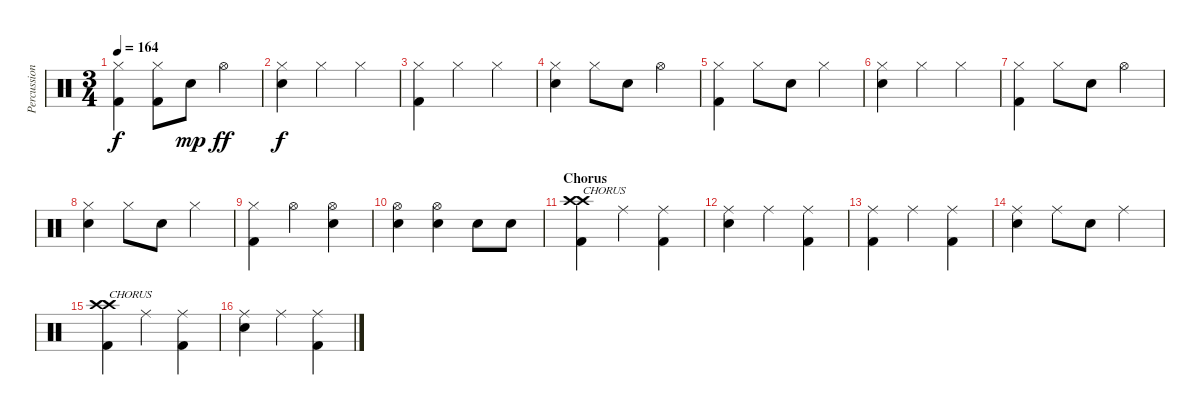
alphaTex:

\track ("Percussion" "Percussion") {instrument percussion}
\staff {score}
\articulation defaults
\ts (3 4)
\tempo 164
\clef neutral
\ks c
("Hi-Hat (closed)" "Kick (hit) 2").4{dy f} ("Hi-Hat (closed)" "Kick (hit) 2").8 "Snare (hit) 2".8{dy mp} "Hi-Hat (open)".4{dy ff} |
("Hi-Hat (closed)" "Snare (hit) 2").4{dy f} "Hi-Hat (closed)".4 "Hi-Hat (closed)".4 |
("Hi-Hat (closed)" "Kick (hit) 2").4 "Hi-Hat (closed)".4 "Hi-Hat (closed)".4 |
("Hi-Hat (closed)" "Snare (hit) 2").4 "Hi-Hat (closed)".8 "Snare (hit) 2".8 "Hi-Hat (open)".4 |
("Hi-Hat (closed)" "Kick (hit) 2").4 "Hi-Hat (closed)".8 "Snare (hit) 2".8 "Hi-Hat (closed)".4 |
("Hi-Hat (closed)" "Snare (hit) 2").4 "Hi-Hat (closed)".4 "Hi-Hat (closed)".4 |
("Hi-Hat (closed)" "Kick (hit) 2").4 "Hi-Hat (closed)".8 "Snare (hit) 2".8 "Hi-Hat (open)".4 |
("Hi-Hat (closed)" "Snare (hit) 2").4 "Hi-Hat (closed)".8 "Snare (hit) 2".8 "Hi-Hat (closed)".4 |
("Hi-Hat (closed)" "Kick (hit) 2").4 "Hi-Hat (open)".4 ("Hi-Hat (open)" "Snare (hit) 2").4 |
("Hi-Hat (open)" "Snare (hit) 2").4 ("Hi-Hat (open)" "Snare (hit) 2").4 "Snare (hit) 2".8 "Snare (hit) 2".8 |
\section ("" "Chorus")
("Crash high (hit)" "Crash high (hit)" "Kick (hit) 2").4{txt "CHORUS"} "Ride (middle)".4 ("Ride (middle)" "Kick (hit) 2").4 |
("Ride (middle)" "Snare (hit) 2").4 "Ride (middle)".4 ("Ride (middle)" "Kick (hit) 2").4 |
("Ride (middle)" "Kick (hit) 2").4 "Ride (middle)".4 ("Ride (middle)" "Kick (hit) 2").4 |
("Ride (middle)" "Snare (hit) 2").4 "Ride (middle)".8 "Snare (hit) 2".8 "Ride (middle)".4 |
("Crash high (hit)" "Crash high (hit)" "Kick (hit) 2").4{txt "CHORUS"} "Ride (middle)".4 ("Ride (middle)" "Kick (hit) 2").4 |
("Ride (middle)" "Snare (hit) 2").4 "Ride (middle)".4 ("Ride (middle)" "Kick (hit) 2").4
